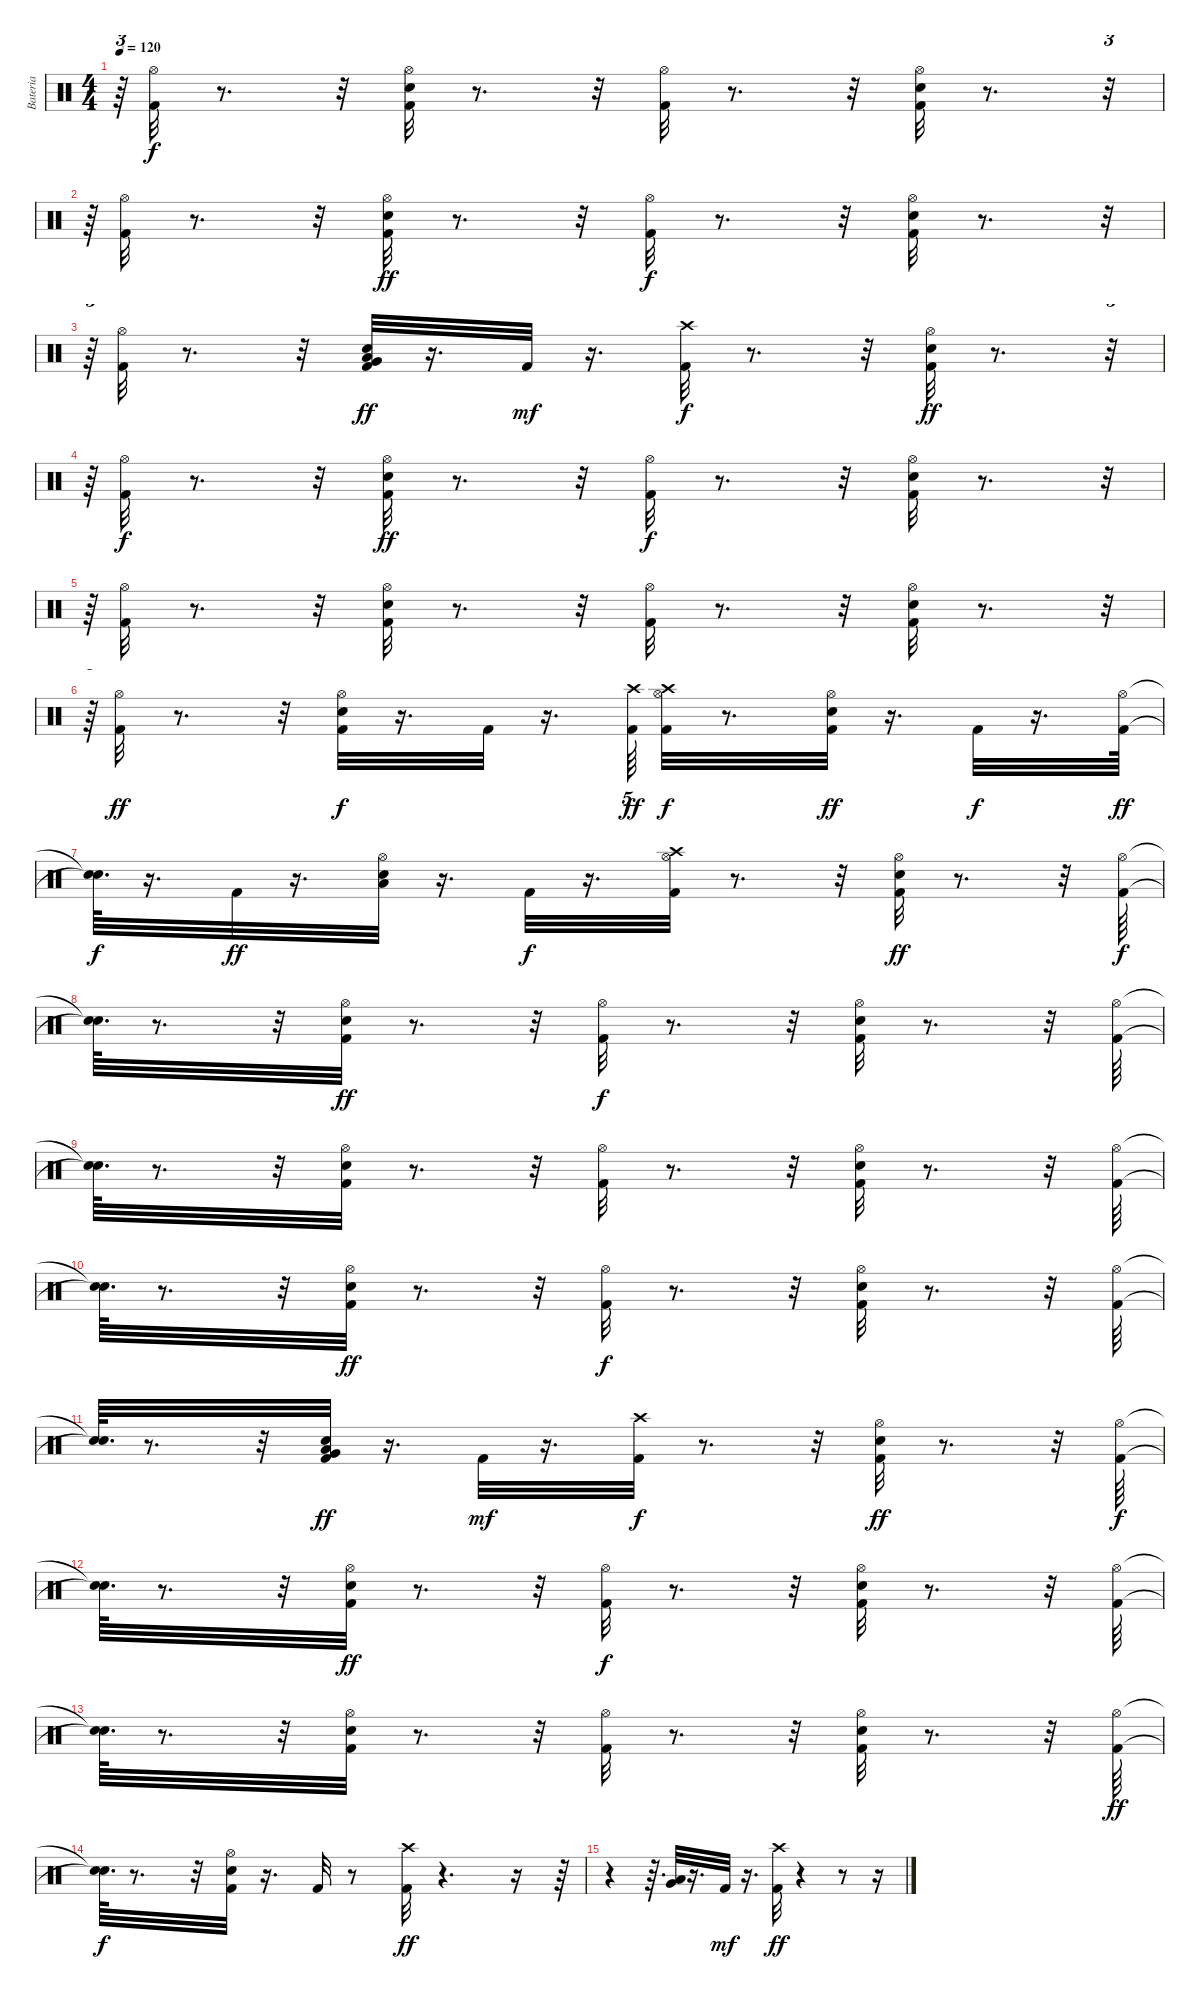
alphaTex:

\track ("Bateria" "Bateria") {instrument percussion}
\staff {score}
\articulation defaults
\ts (4 4)
\tempo 120
\clef neutral
\ks c
r.64{tu (3 2) dy f} ("Hi-Hat (open)" "Kick (hit) 2").32 r.8{d} r.32 ("Hi-Hat (open)" "Kick (hit) 2" "Electric Snare (hit)").32 r.8{d} r.32 ("Hi-Hat (open)" "Kick (hit) 2").32 r.8{d} r.32 ("Hi-Hat (open)" "Electric Snare (hit)" "Kick (hit) 2").32 r.8{d} r.32{tu (3 2)} |
r.64{tu (3 2)} ("Hi-Hat (open)" "Kick (hit) 2").32 r.8{d} r.32 ("Kick (hit) 2" "Electric Snare (hit)" "Hi-Hat (open)").32{dy ff} r.8{d} r.32 ("Hi-Hat (open)" "Kick (hit) 2").32{dy f} r.8{d} r.32 ("Hi-Hat (open)" "Kick (hit) 2" "Electric Snare (hit)").32 r.8{d} r.32{tu (3 2)} |
r.64{tu (3 2)} ("Kick (hit) 2" "Hi-Hat (open)").32 r.8{d} r.32 ("Kick (hit) 2" "Electric Snare (hit)" "Very Low Tom (hit)" "Low Tom (hit)").32{dy ff} r.16{d} "Kick (hit) 2".32{dy mf} r.16{d} ("Crash high (hit)" "Kick (hit) 2").32{dy f} r.8{d} r.32 ("Hi-Hat (open)" "Electric Snare (hit)" "Kick (hit) 2").32{dy ff} r.8{d} r.32{tu (3 2)} |
r.64{tu (3 2)} ("Hi-Hat (open)" "Kick (hit) 2").32{dy f} r.8{d} r.32 ("Hi-Hat (open)" "Kick (hit) 2" "Electric Snare (hit)").32{dy ff} r.8{d} r.32 ("Hi-Hat (open)" "Kick (hit) 2").32{dy f} r.8{d} r.32 ("Kick (hit) 2" "Electric Snare (hit)" "Hi-Hat (open)").32 r.8{d} r.32{tu (3 2)} |
r.64{tu (3 2)} ("Hi-Hat (open)" "Kick (hit) 2").32 r.8{d} r.32 ("Hi-Hat (open)" "Kick (hit) 2" "Electric Snare (hit)").32 r.8{d} r.32 ("Hi-Hat (open)" "Kick (hit) 2").32 r.8{d} r.32 ("Electric Snare (hit)" "Kick (hit) 2" "Hi-Hat (open)").32 r.8{d} r.32{tu (3 2)} |
r.64{tu (3 2)} ("Hi-Hat (open)" "Kick (hit) 2").32{dy ff} r.8{d} r.32 ("Kick (hit) 2" "Electric Snare (hit)" "Hi-Hat (open)").32{dy f} r.16{d} "Kick (hit) 2".32 r.16{d} ("Kick (hit) 2" "Crash high (hit)").64{tu (5 4) dy ff} ("Hi-Hat (open)" "Crash high (hit)" "Kick (hit) 2").32{dy f} r.8{d} ("Electric Snare (hit)" "Hi-Hat (open)" "Kick (hit) 2").32{dy ff} r.16{d} "Kick (hit) 2".32{dy f} r.16{d} ("Hi-Hat (open)" "Kick (hit) 2").64{dy ff} |
("Snare (hit)"{t} "Snare (hit)"{t}).64{d dy f} r.16{d} "Kick (hit) 2".32{dy ff} r.16{d} ("Low Tom (hit)" "Electric Snare (hit)" "Hi-Hat (open)").32 r.16{d} "Kick (hit) 2".32{dy f} r.16{d} ("Kick (hit) 2" "Crash high (hit)" "Hi-Hat (open)").32 r.8{d} r.32 ("Electric Snare (hit)" "Kick (hit) 2" "Hi-Hat (open)").32{dy ff} r.8{d} r.32 ("Hi-Hat (open)" "Kick (hit) 2").64{dy f} |
("Snare (hit)"{t} "Snare (hit)"{t}).64{d} r.8{d} r.32 ("Electric Snare (hit)" "Hi-Hat (open)" "Kick (hit) 2").32{dy ff} r.8{d} r.32 ("Hi-Hat (open)" "Kick (hit) 2").32{dy f} r.8{d} r.32 ("Hi-Hat (open)" "Kick (hit) 2" "Electric Snare (hit)").32 r.8{d} r.32 ("Hi-Hat (open)" "Kick (hit) 2").64 |
("Snare (hit)"{t} "Snare (hit)"{t}).64{d} r.8{d} r.32 ("Hi-Hat (open)" "Kick (hit) 2" "Electric Snare (hit)").32 r.8{d} r.32 ("Hi-Hat (open)" "Kick (hit) 2").32 r.8{d} r.32 ("Hi-Hat (open)" "Electric Snare (hit)" "Kick (hit) 2").32 r.8{d} r.32 ("Hi-Hat (open)" "Kick (hit) 2").64 |
("Snare (hit)"{t} "Snare (hit)"{t}).64{d} r.8{d} r.32 ("Kick (hit) 2" "Electric Snare (hit)" "Hi-Hat (open)").32{dy ff} r.8{d} r.32 ("Hi-Hat (open)" "Kick (hit) 2").32{dy f} r.8{d} r.32 ("Hi-Hat (open)" "Kick (hit) 2" "Electric Snare (hit)").32 r.8{d} r.32 ("Kick (hit) 2" "Hi-Hat (open)").64 |
("Snare (hit)"{t} "Snare (hit)"{t}).64{d} r.8{d} r.32 ("Kick (hit) 2" "Electric Snare (hit)" "Very Low Tom (hit)" "Low Tom (hit)").32{dy ff} r.16{d} "Kick (hit) 2".32{dy mf} r.16{d} ("Crash high (hit)" "Kick (hit) 2").32{dy f} r.8{d} r.32 ("Hi-Hat (open)" "Electric Snare (hit)" "Kick (hit) 2").32{dy ff} r.8{d} r.32 ("Hi-Hat (open)" "Kick (hit) 2").64{dy f} |
("Snare (hit)"{t} "Snare (hit)"{t}).64{d} r.8{d} r.32 ("Hi-Hat (open)" "Kick (hit) 2" "Electric Snare (hit)").32{dy ff} r.8{d} r.32 ("Hi-Hat (open)" "Kick (hit) 2").32{dy f} r.8{d} r.32 ("Kick (hit) 2" "Electric Snare (hit)" "Hi-Hat (open)").32 r.8{d} r.32 ("Hi-Hat (open)" "Kick (hit) 2").64 |
("Snare (hit)"{t} "Snare (hit)"{t}).64{d} r.8{d} r.32 ("Hi-Hat (open)" "Kick (hit) 2" "Electric Snare (hit)").32 r.8{d} r.32 ("Hi-Hat (open)" "Kick (hit) 2").32 r.8{d} r.32 ("Electric Snare (hit)" "Kick (hit) 2" "Hi-Hat (open)").32 r.8{d} r.32 ("Hi-Hat (open)" "Kick (hit) 2").64{dy ff} |
("Snare (hit)"{t} "Snare (hit)"{t}).64{d dy f} r.8{d} r.32 ("Kick (hit) 2" "Electric Snare (hit)" "Hi-Hat (open)").32 r.16{d} "Kick (hit) 2".32 r.8 ("Kick (hit) 2" "Crash high (hit)").32{dy ff} r.4{d} r.16 r.64 |
r.4 r.64{d} ("Low Tom (hit)" "Very Low Tom (hit)").32 r.16{d} "Kick (hit) 2".32{dy mf} r.16{d} ("Kick (hit) 2" "Crash high (hit)").32{dy ff} r.4 r.8 r.16
